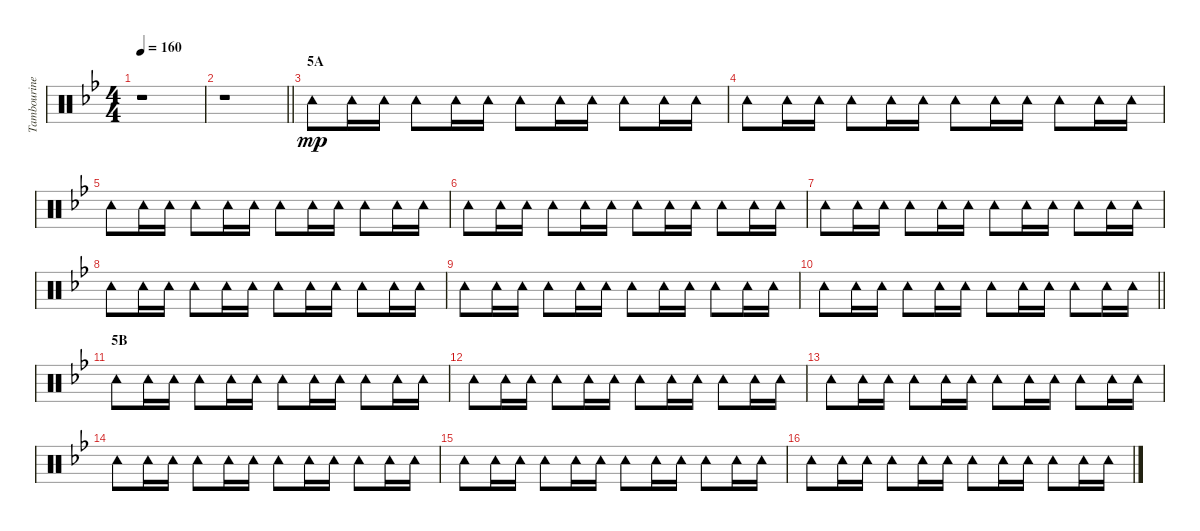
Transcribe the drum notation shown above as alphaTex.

\track ("Tambourine" "Tambourine") {instrument percussion}
\staff {score}
\articulation defaults
\ts (4 4)
\tempo 160
\clef neutral
\ks bb
r.1{dy mp} |
\barLineRight lightlight
r.1 |
\section ("" "5A")
"Tambourine (hit)".8 "Tambourine (hit)".16 "Tambourine (hit)".16 "Tambourine (hit)".8 "Tambourine (hit)".16 "Tambourine (hit)".16 "Tambourine (hit)".8 "Tambourine (hit)".16 "Tambourine (hit)".16 "Tambourine (hit)".8 "Tambourine (hit)".16 "Tambourine (hit)".16 |
"Tambourine (hit)".8 "Tambourine (hit)".16 "Tambourine (hit)".16 "Tambourine (hit)".8 "Tambourine (hit)".16 "Tambourine (hit)".16 "Tambourine (hit)".8 "Tambourine (hit)".16 "Tambourine (hit)".16 "Tambourine (hit)".8 "Tambourine (hit)".16 "Tambourine (hit)".16 |
"Tambourine (hit)".8 "Tambourine (hit)".16 "Tambourine (hit)".16 "Tambourine (hit)".8 "Tambourine (hit)".16 "Tambourine (hit)".16 "Tambourine (hit)".8 "Tambourine (hit)".16 "Tambourine (hit)".16 "Tambourine (hit)".8 "Tambourine (hit)".16 "Tambourine (hit)".16 |
"Tambourine (hit)".8 "Tambourine (hit)".16 "Tambourine (hit)".16 "Tambourine (hit)".8 "Tambourine (hit)".16 "Tambourine (hit)".16 "Tambourine (hit)".8 "Tambourine (hit)".16 "Tambourine (hit)".16 "Tambourine (hit)".8 "Tambourine (hit)".16 "Tambourine (hit)".16 |
"Tambourine (hit)".8 "Tambourine (hit)".16 "Tambourine (hit)".16 "Tambourine (hit)".8 "Tambourine (hit)".16 "Tambourine (hit)".16 "Tambourine (hit)".8 "Tambourine (hit)".16 "Tambourine (hit)".16 "Tambourine (hit)".8 "Tambourine (hit)".16 "Tambourine (hit)".16 |
"Tambourine (hit)".8 "Tambourine (hit)".16 "Tambourine (hit)".16 "Tambourine (hit)".8 "Tambourine (hit)".16 "Tambourine (hit)".16 "Tambourine (hit)".8 "Tambourine (hit)".16 "Tambourine (hit)".16 "Tambourine (hit)".8 "Tambourine (hit)".16 "Tambourine (hit)".16 |
"Tambourine (hit)".8 "Tambourine (hit)".16 "Tambourine (hit)".16 "Tambourine (hit)".8 "Tambourine (hit)".16 "Tambourine (hit)".16 "Tambourine (hit)".8 "Tambourine (hit)".16 "Tambourine (hit)".16 "Tambourine (hit)".8 "Tambourine (hit)".16 "Tambourine (hit)".16 |
\barLineRight lightlight "Tambourine (hit)".8 "Tambourine (hit)".16 "Tambourine (hit)".16 "Tambourine (hit)".8 "Tambourine (hit)".16 "Tambourine (hit)".16 "Tambourine (hit)".8 "Tambourine (hit)".16 "Tambourine (hit)".16 "Tambourine (hit)".8 "Tambourine (hit)".16 "Tambourine (hit)".16
|
\section ("" "5B")
"Tambourine (hit)".8 "Tambourine (hit)".16 "Tambourine (hit)".16 "Tambourine (hit)".8 "Tambourine (hit)".16 "Tambourine (hit)".16 "Tambourine (hit)".8 "Tambourine (hit)".16 "Tambourine (hit)".16 "Tambourine (hit)".8 "Tambourine (hit)".16 "Tambourine (hit)".16 |
"Tambourine (hit)".8 "Tambourine (hit)".16 "Tambourine (hit)".16 "Tambourine (hit)".8 "Tambourine (hit)".16 "Tambourine (hit)".16 "Tambourine (hit)".8 "Tambourine (hit)".16 "Tambourine (hit)".16 "Tambourine (hit)".8 "Tambourine (hit)".16 "Tambourine (hit)".16 |
"Tambourine (hit)".8 "Tambourine (hit)".16 "Tambourine (hit)".16 "Tambourine (hit)".8 "Tambourine (hit)".16 "Tambourine (hit)".16 "Tambourine (hit)".8 "Tambourine (hit)".16 "Tambourine (hit)".16 "Tambourine (hit)".8 "Tambourine (hit)".16 "Tambourine (hit)".16 |
"Tambourine (hit)".8 "Tambourine (hit)".16 "Tambourine (hit)".16 "Tambourine (hit)".8 "Tambourine (hit)".16 "Tambourine (hit)".16 "Tambourine (hit)".8 "Tambourine (hit)".16 "Tambourine (hit)".16 "Tambourine (hit)".8 "Tambourine (hit)".16 "Tambourine (hit)".16 |
"Tambourine (hit)".8 "Tambourine (hit)".16 "Tambourine (hit)".16 "Tambourine (hit)".8 "Tambourine (hit)".16 "Tambourine (hit)".16 "Tambourine (hit)".8 "Tambourine (hit)".16 "Tambourine (hit)".16 "Tambourine (hit)".8 "Tambourine (hit)".16 "Tambourine (hit)".16 |
"Tambourine (hit)".8 "Tambourine (hit)".16 "Tambourine (hit)".16 "Tambourine (hit)".8 "Tambourine (hit)".16 "Tambourine (hit)".16 "Tambourine (hit)".8 "Tambourine (hit)".16 "Tambourine (hit)".16 "Tambourine (hit)".8 "Tambourine (hit)".16 "Tambourine (hit)".16
